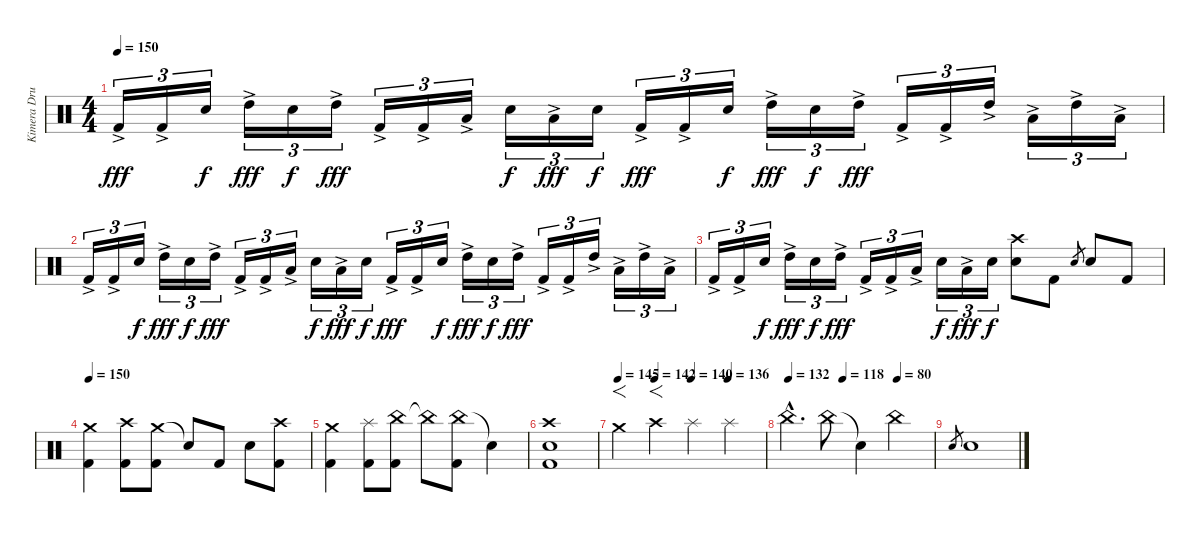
\track ("Kimera Drummer" "Kimera Dru") {instrument percussion}
\staff {score}
\articulation defaults
\ts (4 4)
\tempo 150
\clef neutral
\ks c "Kick (hit) 2"{ac}.16{tu (3 2) dy fff} "Kick (hit) 2"{ac}.16{tu (3 2)} "Electric Snare (hit)".16{tu (3 2) dy f} "High Tom (hit)"{ac}.16{tu (3 2) dy fff} "Electric Snare (hit)".16{tu (3 2) dy f} "High Tom (hit)"{ac}.16{tu (3 2) dy fff} "Kick (hit) 2"{ac}.16{tu (3 2)} "Kick (hit) 2"{ac}.16{tu (3 2)} "Low Tom (hit)"{ac}.16{tu (3 2)} "Electric Snare (hit)".16{tu (3 2) dy f} "Low Tom (hit)"{ac}.16{tu (3 2) dy fff} "Electric Snare (hit)".16{tu (3 2) dy f} "Kick (hit) 2"{ac}.16{tu (3 2) dy fff} "Kick (hit) 2"{ac}.16{tu (3 2)} "Electric Snare (hit)".16{tu (3 2) dy f} "High Tom (hit)"{ac}.16{tu (3 2) dy fff} "Electric Snare (hit)".16{tu (3 2) dy f} "High Tom (hit)"{ac}.16{tu (3 2) dy fff} "Kick (hit) 2"{ac}.16{tu (3 2)} "Kick (hit) 2"{ac}.16{tu (3 2)} "High Tom (hit)"{ac}.16{tu (3 2)} "Low Tom (hit)"{ac}.16{tu (3 2)} "High Tom (hit)"{ac}.16{tu (3 2)} "Low Tom (hit)"{ac}.16{tu (3 2)}
|
"Kick (hit) 2"{ac}.16{tu (3 2)} "Kick (hit) 2"{ac}.16{tu (3 2)} "Electric Snare (hit)".16{tu (3 2) dy f} "High Tom (hit)"{ac}.16{tu (3 2) dy fff} "Electric Snare (hit)".16{tu (3 2) dy f} "High Tom (hit)"{ac}.16{tu (3 2) dy fff} "Kick (hit) 2"{ac}.16{tu (3 2)} "Kick (hit) 2"{ac}.16{tu (3 2)} "Low Tom (hit)"{ac}.16{tu (3 2)} "Electric Snare (hit)".16{tu (3 2) dy f} "Low Tom (hit)"{ac}.16{tu (3 2) dy fff} "Electric Snare (hit)".16{tu (3 2) dy f} "Kick (hit) 2"{ac}.16{tu (3 2) dy fff} "Kick (hit) 2"{ac}.16{tu (3 2)} "Electric Snare (hit)".16{tu (3 2) dy f} "High Tom (hit)"{ac}.16{tu (3 2) dy fff} "Electric Snare (hit)".16{tu (3 2) dy f} "High Tom (hit)"{ac}.16{tu (3 2) dy fff} "Kick (hit) 2"{ac}.16{tu (3 2)} "Kick (hit) 2"{ac}.16{tu (3 2)} "High Tom (hit)"{ac}.16{tu (3 2)} "Low Tom (hit)"{ac}.16{tu (3 2)} "High Tom (hit)"{ac}.16{tu (3 2)} "Low Tom (hit)"{ac}.16{tu (3 2)} |
"Kick (hit) 2"{ac}.16{tu (3 2)} "Kick (hit) 2"{ac}.16{tu (3 2)} "Electric Snare (hit)".16{tu (3 2) dy f} "High Tom (hit)"{ac}.16{tu (3 2) dy fff} "Electric Snare (hit)".16{tu (3 2) dy f} "High Tom (hit)"{ac}.16{tu (3 2) dy fff} "Kick (hit) 2"{ac}.16{tu (3 2)} "Kick (hit) 2"{ac}.16{tu (3 2)} "Low Tom (hit)"{ac}.16{tu (3 2)} "Electric Snare (hit)".16{tu (3 2) dy f} "Low Tom (hit)"{ac}.16{tu (3 2) dy fff} "Electric Snare (hit)".16{tu (3 2) dy f} ("Crash high (hit)" "Electric Snare (hit)").8 "Kick (hit) 2".8 "Electric Snare (hit)".8{gr} "Electric Snare (hit)".8 "Kick (hit) 2".8 |
\tempo 150
("Crash medium (hit)" "Kick (hit) 2").4 ("Crash high (hit)" "Kick (hit) 2").8 ("Crash medium (hit)" "Kick (hit) 2").8 "Snare (hit)"{t}.8 "Kick (hit) 2".8 "Electric Snare (hit)".8 ("Crash high (hit)" "Kick (hit) 2").8 |
("Crash medium (hit)" "Kick (hit) 2").4 ("Splash (hit)" "Kick (hit) 2").8 ("China (hit)" "Kick (hit) 2").8 "China (hit)"{t}.8 ("China (hit)" "Kick (hit) 2").8 "Snare (hit)"{t}.4 |
("Crash high (hit)" "Electric Snare (hit)" "Kick (hit) 2").1 |
\tempo 145
\tempo (142 0.25)
\tempo (140 0.5)
\tempo (136 0.75)
"Crash medium (hit)".4{f} "Crash high (hit)".4{f} "Splash (hit)".4 "Splash (hit)".4 |
\tempo 132
\tempo (118 0.375)
\tempo (80 0.75)
"China (hit)"{hac}.4{d} "China (hit)".8 "Snare (hit)"{t}.4 "China (hit)".4 |
"Electric Snare (hit)".8{gr} "Electric Snare (hit)".1
